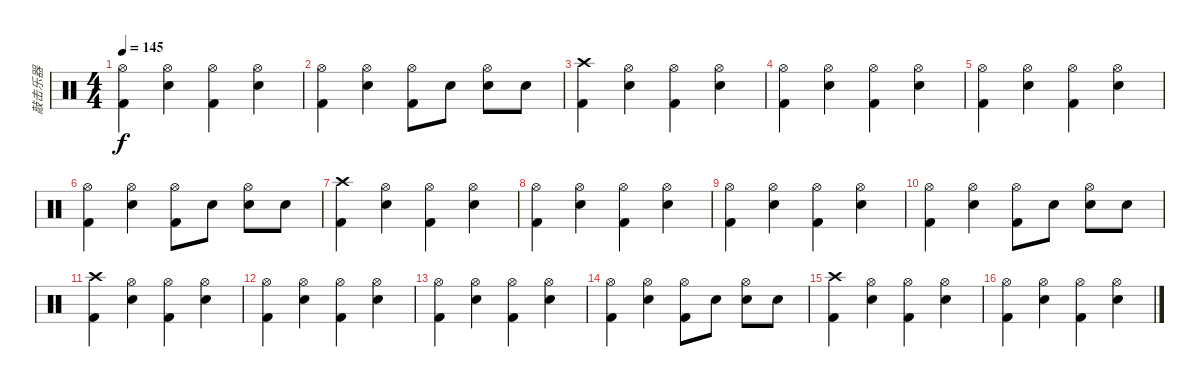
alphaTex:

\track ("敲击乐器" "敲击乐器") {instrument percussion}
\staff {score}
\articulation defaults
\ts (4 4)
\tempo 145
\clef neutral
\ks c
("Hi-Hat (open)" "Kick (hit) 2").4{dy f} ("Hi-Hat (open)" "Snare (hit) 2").4 ("Hi-Hat (open)" "Kick (hit) 2").4 ("Hi-Hat (open)" "Snare (hit) 2").4 |
("Hi-Hat (open)" "Kick (hit) 2").4 ("Hi-Hat (open)" "Snare (hit) 2").4 ("Hi-Hat (open)" "Kick (hit) 2").8 "Snare (hit) 2".8 ("Hi-Hat (open)" "Snare (hit) 2").8 "Snare (hit) 2".8 |
("Crash high (hit)" "Kick (hit) 2").4 ("Hi-Hat (open)" "Snare (hit) 2").4 ("Hi-Hat (open)" "Kick (hit) 2").4 ("Hi-Hat (open)" "Snare (hit) 2").4 |
("Hi-Hat (open)" "Kick (hit) 2").4 ("Hi-Hat (open)" "Snare (hit) 2").4 ("Hi-Hat (open)" "Kick (hit) 2").4 ("Hi-Hat (open)" "Snare (hit) 2").4 |
("Hi-Hat (open)" "Kick (hit) 2").4 ("Hi-Hat (open)" "Snare (hit) 2").4 ("Hi-Hat (open)" "Kick (hit) 2").4 ("Hi-Hat (open)" "Snare (hit) 2").4 |
("Hi-Hat (open)" "Kick (hit) 2").4 ("Hi-Hat (open)" "Snare (hit) 2").4 ("Hi-Hat (open)" "Kick (hit) 2").8 "Snare (hit) 2".8 ("Hi-Hat (open)" "Snare (hit) 2").8 "Snare (hit) 2".8 |
("Crash high (hit)" "Kick (hit) 2").4 ("Hi-Hat (open)" "Snare (hit) 2").4 ("Hi-Hat (open)" "Kick (hit) 2").4 ("Hi-Hat (open)" "Snare (hit) 2").4 |
("Hi-Hat (open)" "Kick (hit) 2").4 ("Hi-Hat (open)" "Snare (hit) 2").4 ("Hi-Hat (open)" "Kick (hit) 2").4 ("Hi-Hat (open)" "Snare (hit) 2").4 |
("Hi-Hat (open)" "Kick (hit) 2").4 ("Hi-Hat (open)" "Snare (hit) 2").4 ("Hi-Hat (open)" "Kick (hit) 2").4 ("Hi-Hat (open)" "Snare (hit) 2").4 |
("Hi-Hat (open)" "Kick (hit) 2").4 ("Hi-Hat (open)" "Snare (hit) 2").4 ("Hi-Hat (open)" "Kick (hit) 2").8 "Snare (hit) 2".8 ("Hi-Hat (open)" "Snare (hit) 2").8 "Snare (hit) 2".8 |
("Crash high (hit)" "Kick (hit) 2").4 ("Hi-Hat (open)" "Snare (hit) 2").4 ("Hi-Hat (open)" "Kick (hit) 2").4 ("Hi-Hat (open)" "Snare (hit) 2").4 |
("Hi-Hat (open)" "Kick (hit) 2").4 ("Hi-Hat (open)" "Snare (hit) 2").4 ("Hi-Hat (open)" "Kick (hit) 2").4 ("Hi-Hat (open)" "Snare (hit) 2").4 |
("Hi-Hat (open)" "Kick (hit) 2").4 ("Hi-Hat (open)" "Snare (hit) 2").4 ("Hi-Hat (open)" "Kick (hit) 2").4 ("Hi-Hat (open)" "Snare (hit) 2").4 |
("Hi-Hat (open)" "Kick (hit) 2").4 ("Hi-Hat (open)" "Snare (hit) 2").4 ("Hi-Hat (open)" "Kick (hit) 2").8 "Snare (hit) 2".8 ("Hi-Hat (open)" "Snare (hit) 2").8 "Snare (hit) 2".8 |
("Crash high (hit)" "Kick (hit) 2").4 ("Hi-Hat (open)" "Snare (hit) 2").4 ("Hi-Hat (open)" "Kick (hit) 2").4 ("Hi-Hat (open)" "Snare (hit) 2").4 |
("Hi-Hat (open)" "Kick (hit) 2").4 ("Hi-Hat (open)" "Snare (hit) 2").4 ("Hi-Hat (open)" "Kick (hit) 2").4 ("Hi-Hat (open)" "Snare (hit) 2").4
